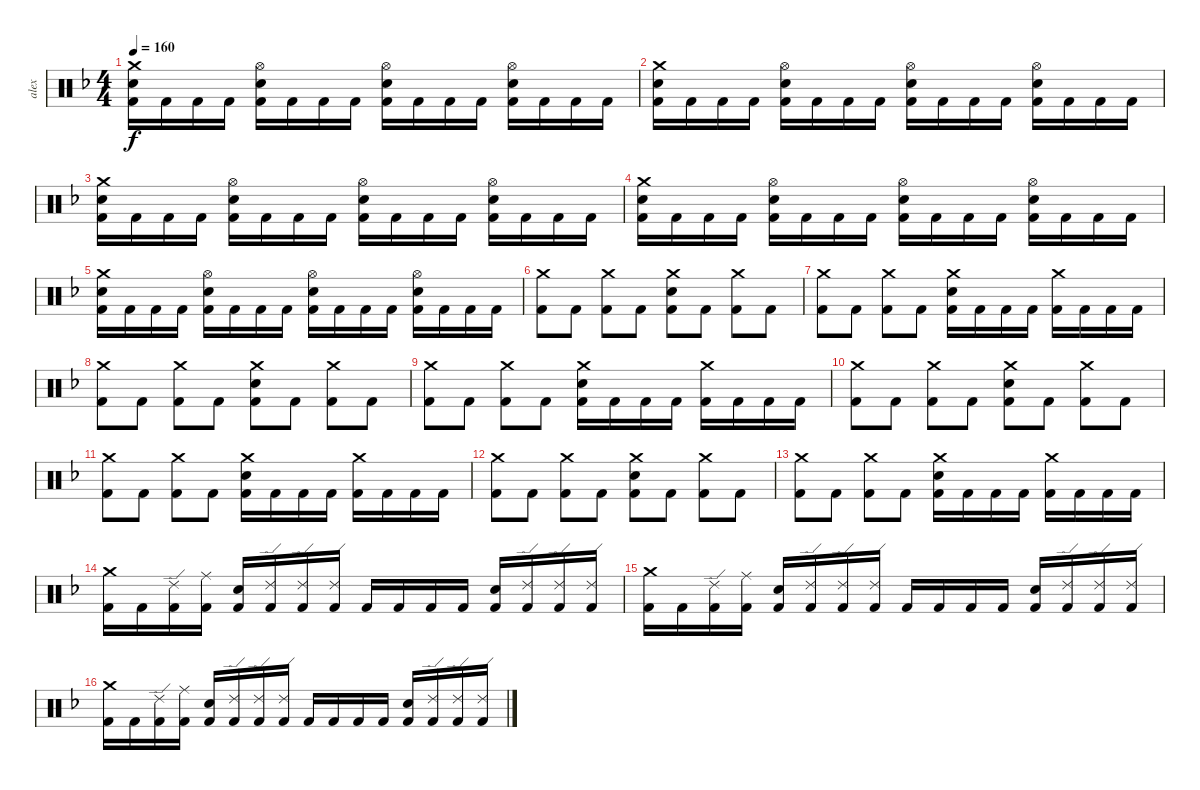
\track ("alex" "alex") {instrument percussion}
\staff {score}
\articulation defaults
\ts (4 4)
\tempo 160
\clef neutral
\ks f
("Crash medium (hit)" "Kick (hit) 2" "Electric Snare (hit)").16{dy f} "Kick (hit) 2".16 "Kick (hit) 2".16 "Kick (hit) 2".16 ("Hi-Hat (open)" "Kick (hit) 2" "Electric Snare (hit)").16 "Kick (hit) 2".16 "Kick (hit) 2".16 "Kick (hit) 2".16 ("Hi-Hat (open)" "Kick (hit) 2" "Electric Snare (hit)").16 "Kick (hit) 2".16 "Kick (hit) 2".16 "Kick (hit) 2".16 ("Hi-Hat (open)" "Kick (hit) 2" "Electric Snare (hit)").16 "Kick (hit) 2".16 "Kick (hit) 2".16 "Kick (hit) 2".16 |
("Crash medium (hit)" "Kick (hit) 2" "Electric Snare (hit)").16 "Kick (hit) 2".16 "Kick (hit) 2".16 "Kick (hit) 2".16 ("Hi-Hat (open)" "Kick (hit) 2" "Electric Snare (hit)").16 "Kick (hit) 2".16 "Kick (hit) 2".16 "Kick (hit) 2".16 ("Hi-Hat (open)" "Kick (hit) 2" "Electric Snare (hit)").16 "Kick (hit) 2".16 "Kick (hit) 2".16 "Kick (hit) 2".16 ("Hi-Hat (open)" "Kick (hit) 2" "Electric Snare (hit)").16 "Kick (hit) 2".16 "Kick (hit) 2".16 "Kick (hit) 2".16 |
("Crash medium (hit)" "Kick (hit) 2" "Electric Snare (hit)").16 "Kick (hit) 2".16 "Kick (hit) 2".16 "Kick (hit) 2".16 ("Hi-Hat (open)" "Kick (hit) 2" "Electric Snare (hit)").16 "Kick (hit) 2".16 "Kick (hit) 2".16 "Kick (hit) 2".16 ("Hi-Hat (open)" "Kick (hit) 2" "Electric Snare (hit)").16 "Kick (hit) 2".16 "Kick (hit) 2".16 "Kick (hit) 2".16 ("Hi-Hat (open)" "Kick (hit) 2" "Electric Snare (hit)").16 "Kick (hit) 2".16 "Kick (hit) 2".16 "Kick (hit) 2".16 |
("Crash medium (hit)" "Kick (hit) 2" "Electric Snare (hit)").16 "Kick (hit) 2".16 "Kick (hit) 2".16 "Kick (hit) 2".16 ("Hi-Hat (open)" "Kick (hit) 2" "Electric Snare (hit)").16 "Kick (hit) 2".16 "Kick (hit) 2".16 "Kick (hit) 2".16 ("Hi-Hat (open)" "Kick (hit) 2" "Electric Snare (hit)").16 "Kick (hit) 2".16 "Kick (hit) 2".16 "Kick (hit) 2".16 ("Hi-Hat (open)" "Kick (hit) 2" "Electric Snare (hit)").16 "Kick (hit) 2".16 "Kick (hit) 2".16 "Kick (hit) 2".16 |
("Crash medium (hit)" "Kick (hit) 2" "Electric Snare (hit)").16 "Kick (hit) 2".16 "Kick (hit) 2".16 "Kick (hit) 2".16 ("Hi-Hat (open)" "Kick (hit) 2" "Electric Snare (hit)").16 "Kick (hit) 2".16 "Kick (hit) 2".16 "Kick (hit) 2".16 ("Hi-Hat (open)" "Kick (hit) 2" "Electric Snare (hit)").16 "Kick (hit) 2".16 "Kick (hit) 2".16 "Kick (hit) 2".16 ("Hi-Hat (open)" "Kick (hit) 2" "Electric Snare (hit)").16 "Kick (hit) 2".16 "Kick (hit) 2".16 "Kick (hit) 2".16 |
("Kick (hit) 2" "Crash medium (hit)").8 "Kick (hit) 2".8 ("Crash medium (hit)" "Kick (hit) 2").8 "Kick (hit) 2".8 ("Electric Snare (hit)" "Crash medium (hit)" "Kick (hit) 2").8 "Kick (hit) 2".8 ("Crash medium (hit)" "Kick (hit) 2").8 "Kick (hit) 2".8 |
("Kick (hit) 2" "Crash medium (hit)").8 "Kick (hit) 2".8 ("Crash medium (hit)" "Kick (hit) 2").8 "Kick (hit) 2".8 ("Electric Snare (hit)" "Crash medium (hit)" "Kick (hit) 2").16 "Kick (hit) 2".16 "Kick (hit) 2".16 "Kick (hit) 2".16 ("Crash medium (hit)" "Kick (hit) 2").16 "Kick (hit) 2".16 "Kick (hit) 2".16 "Kick (hit) 2".16 |
("Kick (hit) 2" "Crash medium (hit)").8 "Kick (hit) 2".8 ("Crash medium (hit)" "Kick (hit) 2").8 "Kick (hit) 2".8 ("Electric Snare (hit)" "Crash medium (hit)" "Kick (hit) 2").8 "Kick (hit) 2".8 ("Crash medium (hit)" "Kick (hit) 2").8 "Kick (hit) 2".8 |
("Kick (hit) 2" "Crash medium (hit)").8 "Kick (hit) 2".8 ("Crash medium (hit)" "Kick (hit) 2").8 "Kick (hit) 2".8 ("Electric Snare (hit)" "Crash medium (hit)" "Kick (hit) 2").16 "Kick (hit) 2".16 "Kick (hit) 2".16 "Kick (hit) 2".16 ("Crash medium (hit)" "Kick (hit) 2").16 "Kick (hit) 2".16 "Kick (hit) 2".16 "Kick (hit) 2".16 |
("Kick (hit) 2" "Crash medium (hit)").8 "Kick (hit) 2".8 ("Crash medium (hit)" "Kick (hit) 2").8 "Kick (hit) 2".8 ("Electric Snare (hit)" "Crash medium (hit)" "Kick (hit) 2").8 "Kick (hit) 2".8 ("Crash medium (hit)" "Kick (hit) 2").8 "Kick (hit) 2".8 |
("Kick (hit) 2" "Crash medium (hit)").8 "Kick (hit) 2".8 ("Crash medium (hit)" "Kick (hit) 2").8 "Kick (hit) 2".8 ("Electric Snare (hit)" "Crash medium (hit)" "Kick (hit) 2").16 "Kick (hit) 2".16 "Kick (hit) 2".16 "Kick (hit) 2".16 ("Crash medium (hit)" "Kick (hit) 2").16 "Kick (hit) 2".16 "Kick (hit) 2".16 "Kick (hit) 2".16 |
("Kick (hit) 2" "Crash medium (hit)").8 "Kick (hit) 2".8 ("Crash medium (hit)" "Kick (hit) 2").8 "Kick (hit) 2".8 ("Electric Snare (hit)" "Crash medium (hit)" "Kick (hit) 2").8 "Kick (hit) 2".8 ("Crash medium (hit)" "Kick (hit) 2").8 "Kick (hit) 2".8 |
("Kick (hit) 2" "Crash medium (hit)").8 "Kick (hit) 2".8 ("Crash medium (hit)" "Kick (hit) 2").8 "Kick (hit) 2".8 ("Electric Snare (hit)" "Crash medium (hit)" "Kick (hit) 2").16 "Kick (hit) 2".16 "Kick (hit) 2".16 "Kick (hit) 2".16 ("Crash medium (hit)" "Kick (hit) 2").16 "Kick (hit) 2".16 "Kick (hit) 2".16 "Kick (hit) 2".16 |
("Crash medium (hit)" "Kick (hit) 2").16 "Kick (hit) 2".16 ("Ride (edge) 2" "Kick (hit) 2").16 ("Ride (middle)" "Kick (hit) 2").16 ("Kick (hit) 2" "Electric Snare (hit)").16 ("Ride (edge) 2" "Kick (hit) 2").16 ("Ride (edge) 2" "Kick (hit) 2").16 ("Ride (edge) 2" "Kick (hit) 2").16 "Kick (hit) 2".16 "Kick (hit) 2".16 "Kick (hit) 2".16 "Kick (hit) 2".16 ("Kick (hit) 2" "Electric Snare (hit)").16 ("Ride (edge) 2" "Kick (hit) 2").16 ("Ride (edge) 2" "Kick (hit) 2").16 ("Ride (edge) 2" "Kick (hit) 2").16 |
("Crash medium (hit)" "Kick (hit) 2").16 "Kick (hit) 2".16 ("Ride (edge) 2" "Kick (hit) 2").16 ("Ride (middle)" "Kick (hit) 2").16 ("Kick (hit) 2" "Electric Snare (hit)").16 ("Ride (edge) 2" "Kick (hit) 2").16 ("Ride (edge) 2" "Kick (hit) 2").16 ("Ride (edge) 2" "Kick (hit) 2").16 "Kick (hit) 2".16 "Kick (hit) 2".16 "Kick (hit) 2".16 "Kick (hit) 2".16 ("Kick (hit) 2" "Electric Snare (hit)").16 ("Ride (edge) 2" "Kick (hit) 2").16 ("Ride (edge) 2" "Kick (hit) 2").16 ("Ride (edge) 2" "Kick (hit) 2").16 |
("Crash medium (hit)" "Kick (hit) 2").16 "Kick (hit) 2".16 ("Ride (edge) 2" "Kick (hit) 2").16 ("Ride (middle)" "Kick (hit) 2").16 ("Kick (hit) 2" "Electric Snare (hit)").16 ("Ride (edge) 2" "Kick (hit) 2").16 ("Ride (edge) 2" "Kick (hit) 2").16 ("Ride (edge) 2" "Kick (hit) 2").16 "Kick (hit) 2".16 "Kick (hit) 2".16 "Kick (hit) 2".16 "Kick (hit) 2".16 ("Kick (hit) 2" "Electric Snare (hit)").16 ("Ride (edge) 2" "Kick (hit) 2").16 ("Ride (edge) 2" "Kick (hit) 2").16 ("Ride (edge) 2" "Kick (hit) 2").16
